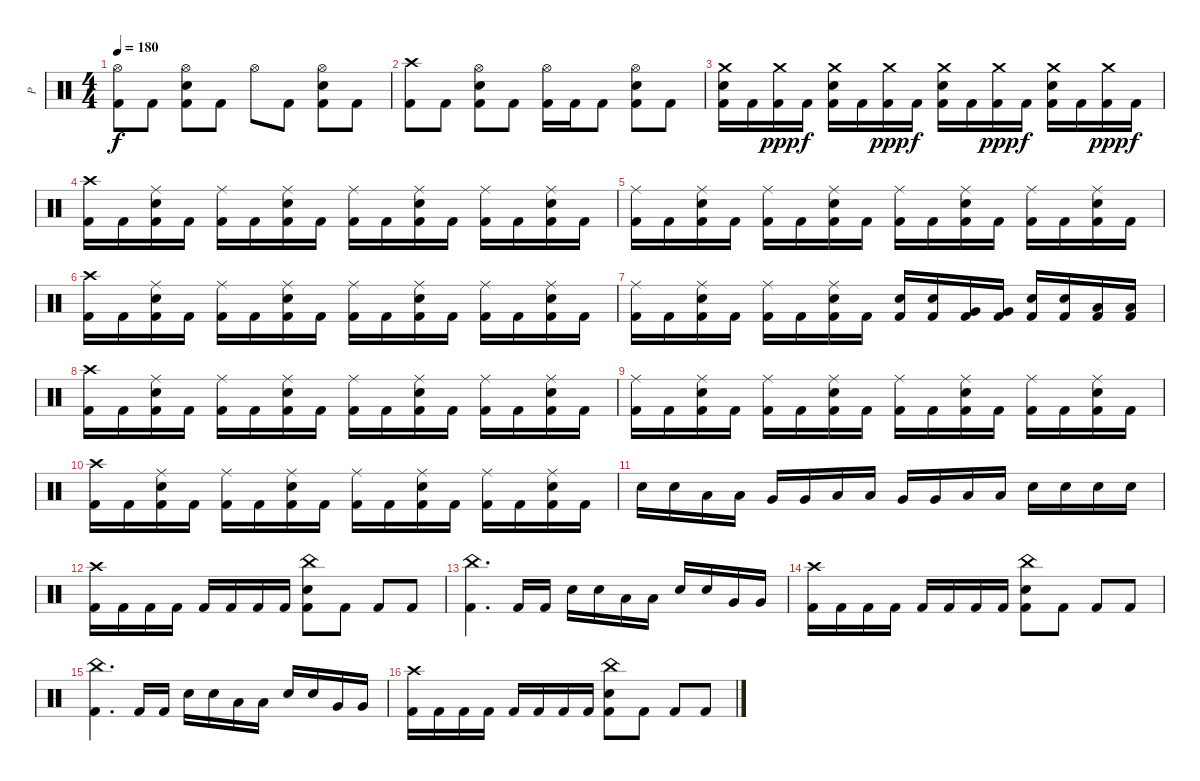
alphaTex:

\track ("P" "P") {instrument percussion}
\staff {score}
\articulation defaults
\ts (4 4)
\tempo 180
\clef neutral
\ks c
("Hi-Hat (open)" "Kick (hit) 2").8{dy f} "Kick (hit) 2".8 ("Hi-Hat (open)" "Electric Snare (hit)" "Kick (hit) 2").8 "Kick (hit) 2".8 "Hi-Hat (open)".8 "Kick (hit) 2".8 ("Hi-Hat (open)" "Electric Snare (hit)" "Kick (hit) 2").8 "Kick (hit) 2".8 |
("Crash high (hit)" "Kick (hit) 2").8 "Kick (hit) 2".8 ("Hi-Hat (open)" "Electric Snare (hit)" "Kick (hit) 2").8 "Kick (hit) 2".8 ("Hi-Hat (open)" "Kick (hit) 2").16 "Kick (hit) 2".16 "Kick (hit) 2".8 ("Hi-Hat (open)" "Electric Snare (hit)" "Kick (hit) 2").8 "Kick (hit) 2".8 |
("Crash medium (hit)" "Electric Snare (hit)" "Kick (hit) 2").16 "Kick (hit) 2".16 ("Crash medium (hit)" "Kick (hit) 2").16{dy ppp} "Kick (hit) 2".16{dy f} ("Crash medium (hit)" "Electric Snare (hit)" "Kick (hit) 2").16 "Kick (hit) 2".16 ("Crash medium (hit)" "Kick (hit) 2").16{dy ppp} "Kick (hit) 2".16{dy f} ("Crash medium (hit)" "Electric Snare (hit)" "Kick (hit) 2").16 "Kick (hit) 2".16 ("Crash medium (hit)" "Kick (hit) 2").16{dy ppp} "Kick (hit) 2".16{dy f} ("Crash medium (hit)" "Electric Snare (hit)" "Kick (hit) 2").16 "Kick (hit) 2".16 ("Crash medium (hit)" "Kick (hit) 2").16{dy ppp} "Kick (hit) 2".16{dy f} |
("Crash high (hit)" "Kick (hit) 2").16 "Kick (hit) 2".16 ("Ride (middle)" "Electric Snare (hit)" "Kick (hit) 2").16 "Kick (hit) 2".16 ("Ride (middle)" "Kick (hit) 2").16 "Kick (hit) 2".16 ("Ride (middle)" "Electric Snare (hit)" "Kick (hit) 2").16 "Kick (hit) 2".16 ("Ride (middle)" "Kick (hit) 2").16 "Kick (hit) 2".16 ("Ride (middle)" "Electric Snare (hit)" "Kick (hit) 2").16 "Kick (hit) 2".16 ("Ride (middle)" "Kick (hit) 2").16 "Kick (hit) 2".16 ("Ride (middle)" "Electric Snare (hit)" "Kick (hit) 2").16 "Kick (hit) 2".16 |
("Ride (middle)" "Kick (hit) 2").16 "Kick (hit) 2".16 ("Ride (middle)" "Electric Snare (hit)" "Kick (hit) 2").16 "Kick (hit) 2".16 ("Ride (middle)" "Kick (hit) 2").16 "Kick (hit) 2".16 ("Ride (middle)" "Electric Snare (hit)" "Kick (hit) 2").16 "Kick (hit) 2".16 ("Ride (middle)" "Kick (hit) 2").16 "Kick (hit) 2".16 ("Ride (middle)" "Electric Snare (hit)" "Kick (hit) 2").16 "Kick (hit) 2".16 ("Ride (middle)" "Kick (hit) 2").16 "Kick (hit) 2".16 ("Ride (middle)" "Electric Snare (hit)" "Kick (hit) 2").16 "Kick (hit) 2".16 |
("Crash high (hit)" "Kick (hit) 2").16 "Kick (hit) 2".16 ("Ride (middle)" "Electric Snare (hit)" "Kick (hit) 2").16 "Kick (hit) 2".16 ("Ride (middle)" "Kick (hit) 2").16 "Kick (hit) 2".16 ("Ride (middle)" "Electric Snare (hit)" "Kick (hit) 2").16 "Kick (hit) 2".16 ("Ride (middle)" "Kick (hit) 2").16 "Kick (hit) 2".16 ("Ride (middle)" "Electric Snare (hit)" "Kick (hit) 2").16 "Kick (hit) 2".16 ("Ride (middle)" "Kick (hit) 2").16 "Kick (hit) 2".16 ("Ride (middle)" "Electric Snare (hit)" "Kick (hit) 2").16 "Kick (hit) 2".16 |
("Ride (middle)" "Kick (hit) 2").16 "Kick (hit) 2".16 ("Ride (middle)" "Electric Snare (hit)" "Kick (hit) 2").16 "Kick (hit) 2".16 ("Ride (middle)" "Kick (hit) 2").16 "Kick (hit) 2".16 ("Ride (middle)" "Electric Snare (hit)" "Kick (hit) 2").16 "Kick (hit) 2".16 ("Electric Snare (hit)" "Kick (hit) 2").16 ("Electric Snare (hit)" "Kick (hit) 2").16 ("Very Low Tom (hit)" "Kick (hit) 2").16 ("Very Low Tom (hit)" "Kick (hit) 2").16 ("Electric Snare (hit)" "Kick (hit) 2").16 ("Electric Snare (hit)" "Kick (hit) 2").16 ("Low Tom (hit)" "Kick (hit) 2").16 ("Low Tom (hit)" "Kick (hit) 2").16 |
("Crash high (hit)" "Kick (hit) 2").16 "Kick (hit) 2".16 ("Ride (middle)" "Electric Snare (hit)" "Kick (hit) 2").16 "Kick (hit) 2".16 ("Ride (middle)" "Kick (hit) 2").16 "Kick (hit) 2".16 ("Ride (middle)" "Electric Snare (hit)" "Kick (hit) 2").16 "Kick (hit) 2".16 ("Ride (middle)" "Kick (hit) 2").16 "Kick (hit) 2".16 ("Ride (middle)" "Electric Snare (hit)" "Kick (hit) 2").16 "Kick (hit) 2".16 ("Ride (middle)" "Kick (hit) 2").16 "Kick (hit) 2".16 ("Ride (middle)" "Electric Snare (hit)" "Kick (hit) 2").16 "Kick (hit) 2".16 |
("Ride (middle)" "Kick (hit) 2").16 "Kick (hit) 2".16 ("Ride (middle)" "Electric Snare (hit)" "Kick (hit) 2").16 "Kick (hit) 2".16 ("Ride (middle)" "Kick (hit) 2").16 "Kick (hit) 2".16 ("Ride (middle)" "Electric Snare (hit)" "Kick (hit) 2").16 "Kick (hit) 2".16 ("Ride (middle)" "Kick (hit) 2").16 "Kick (hit) 2".16 ("Ride (middle)" "Electric Snare (hit)" "Kick (hit) 2").16 "Kick (hit) 2".16 ("Ride (middle)" "Kick (hit) 2").16 "Kick (hit) 2".16 ("Ride (middle)" "Electric Snare (hit)" "Kick (hit) 2").16 "Kick (hit) 2".16 |
("Crash high (hit)" "Kick (hit) 2").16 "Kick (hit) 2".16 ("Ride (middle)" "Electric Snare (hit)" "Kick (hit) 2").16 "Kick (hit) 2".16 ("Ride (middle)" "Kick (hit) 2").16 "Kick (hit) 2".16 ("Ride (middle)" "Electric Snare (hit)" "Kick (hit) 2").16 "Kick (hit) 2".16 ("Ride (middle)" "Kick (hit) 2").16 "Kick (hit) 2".16 ("Ride (middle)" "Electric Snare (hit)" "Kick (hit) 2").16 "Kick (hit) 2".16 ("Ride (middle)" "Kick (hit) 2").16 "Kick (hit) 2".16 ("Ride (middle)" "Electric Snare (hit)" "Kick (hit) 2").16 "Kick (hit) 2".16 |
"Electric Snare (hit)".16 "Electric Snare (hit)".16 "Low Tom (hit)".16 "Low Tom (hit)".16 "Very Low Tom (hit)".16 "Very Low Tom (hit)".16 "Low Tom (hit)".16 "Low Tom (hit)".16 "Very Low Tom (hit)".16 "Very Low Tom (hit)".16 "Low Floor Tom (hit)".16 "Low Floor Tom (hit)".16 "Electric Snare (hit)".16 "Electric Snare (hit)".16 "Electric Snare (hit)".16 "Electric Snare (hit)".16 |
("Crash high (hit)" "Kick (hit) 2").16 "Kick (hit) 2".16 "Kick (hit) 2".16 "Kick (hit) 2".16 "Kick (hit) 2".16 "Kick (hit) 2".16 "Kick (hit) 2".16 "Kick (hit) 2".16 ("China (hit)" "Electric Snare (hit)" "Kick (hit) 2").8 "Kick (hit) 2".8 "Kick (hit) 2".8 "Kick (hit) 2".8 |
("China (hit)" "Kick (hit) 2").4{d} "Kick (hit) 2".16 "Kick (hit) 2".16 "Electric Snare (hit)".16 "Electric Snare (hit)".16 "Low Tom (hit)".16 "Low Tom (hit)".16 "Electric Snare (hit)".16 "Electric Snare (hit)".16 "Very Low Tom (hit)".16 "Very Low Tom (hit)".16 |
("Crash high (hit)" "Kick (hit) 2").16 "Kick (hit) 2".16 "Kick (hit) 2".16 "Kick (hit) 2".16 "Kick (hit) 2".16 "Kick (hit) 2".16 "Kick (hit) 2".16 "Kick (hit) 2".16 ("China (hit)" "Electric Snare (hit)" "Kick (hit) 2").8 "Kick (hit) 2".8 "Kick (hit) 2".8 "Kick (hit) 2".8 |
("China (hit)" "Kick (hit) 2").4{d} "Kick (hit) 2".16 "Kick (hit) 2".16 "Electric Snare (hit)".16 "Electric Snare (hit)".16 "Low Tom (hit)".16 "Low Tom (hit)".16 "Electric Snare (hit)".16 "Electric Snare (hit)".16 "Very Low Tom (hit)".16 "Very Low Tom (hit)".16 |
("Crash high (hit)" "Kick (hit) 2").16 "Kick (hit) 2".16 "Kick (hit) 2".16 "Kick (hit) 2".16 "Kick (hit) 2".16 "Kick (hit) 2".16 "Kick (hit) 2".16 "Kick (hit) 2".16 ("China (hit)" "Electric Snare (hit)" "Kick (hit) 2").8 "Kick (hit) 2".8 "Kick (hit) 2".8 "Kick (hit) 2".8
